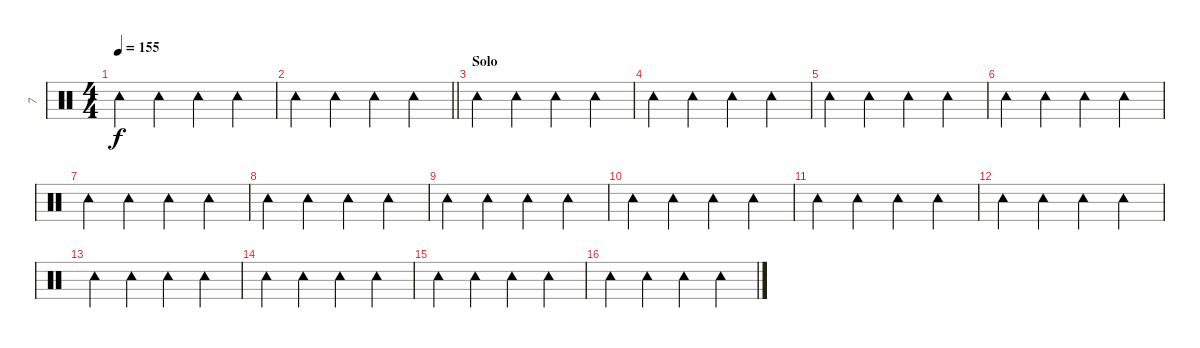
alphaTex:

\track ("7" "7") {instrument percussion}
\staff {score}
\articulation defaults
\ts (4 4)
\tempo 155
\clef neutral
\ks c "Tambourine (hit)".4{dy f} "Tambourine (hit)".4 "Tambourine (hit)".4 "Tambourine (hit)".4
|
\barLineRight lightlight "Tambourine (hit)".4 "Tambourine (hit)".4 "Tambourine (hit)".4 "Tambourine (hit)".4
|
\section ("" "Solo")
"Tambourine (hit)".4 "Tambourine (hit)".4 "Tambourine (hit)".4 "Tambourine (hit)".4 |
"Tambourine (hit)".4 "Tambourine (hit)".4 "Tambourine (hit)".4 "Tambourine (hit)".4 |
"Tambourine (hit)".4 "Tambourine (hit)".4 "Tambourine (hit)".4 "Tambourine (hit)".4 |
"Tambourine (hit)".4 "Tambourine (hit)".4 "Tambourine (hit)".4 "Tambourine (hit)".4 |
"Tambourine (hit)".4 "Tambourine (hit)".4 "Tambourine (hit)".4 "Tambourine (hit)".4 |
"Tambourine (hit)".4 "Tambourine (hit)".4 "Tambourine (hit)".4 "Tambourine (hit)".4 |
"Tambourine (hit)".4 "Tambourine (hit)".4 "Tambourine (hit)".4 "Tambourine (hit)".4 |
"Tambourine (hit)".4 "Tambourine (hit)".4 "Tambourine (hit)".4 "Tambourine (hit)".4 |
"Tambourine (hit)".4 "Tambourine (hit)".4 "Tambourine (hit)".4 "Tambourine (hit)".4 |
"Tambourine (hit)".4 "Tambourine (hit)".4 "Tambourine (hit)".4 "Tambourine (hit)".4 |
"Tambourine (hit)".4 "Tambourine (hit)".4 "Tambourine (hit)".4 "Tambourine (hit)".4 |
"Tambourine (hit)".4 "Tambourine (hit)".4 "Tambourine (hit)".4 "Tambourine (hit)".4 |
"Tambourine (hit)".4 "Tambourine (hit)".4 "Tambourine (hit)".4 "Tambourine (hit)".4 |
"Tambourine (hit)".4 "Tambourine (hit)".4 "Tambourine (hit)".4 "Tambourine (hit)".4
